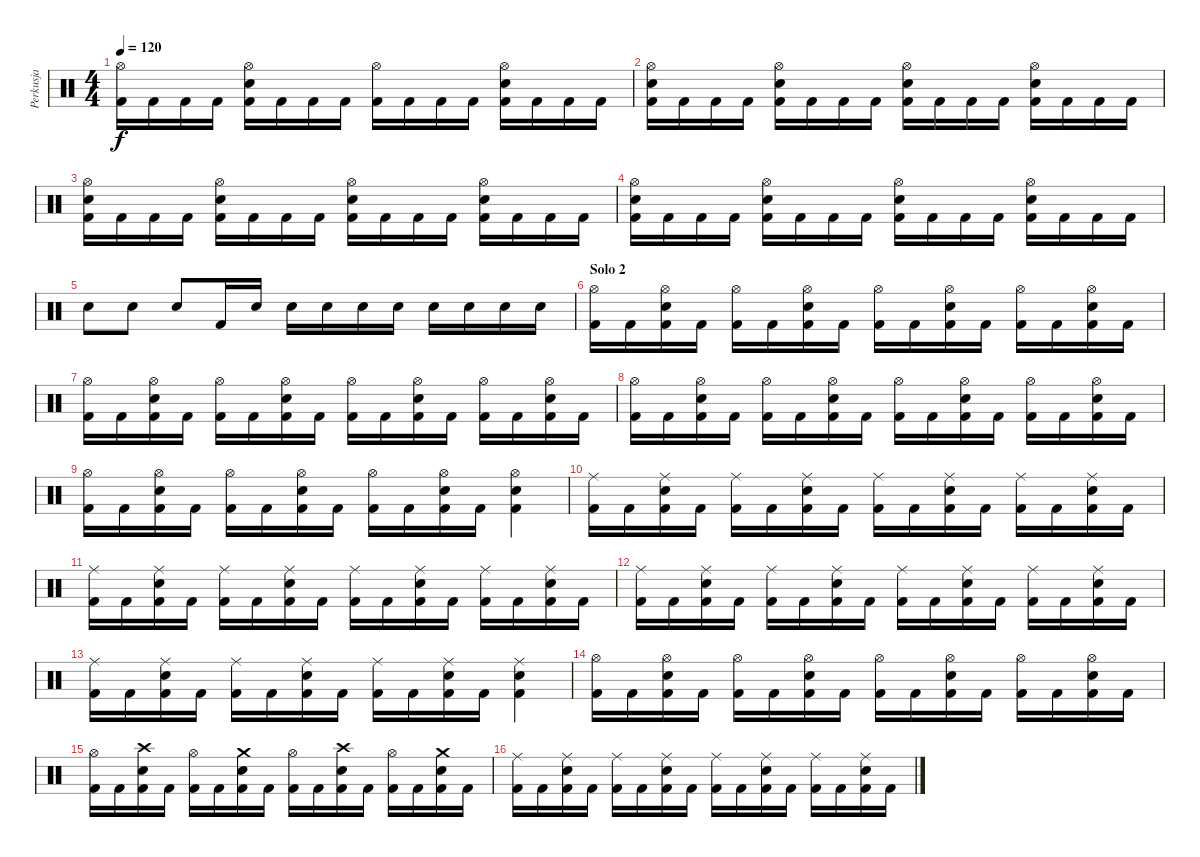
\track ("Perkusja" "Perkusja") {instrument percussion}
\staff {score}
\articulation defaults
\ts (4 4)
\tempo 120
\clef neutral
\ks c
("Hi-Hat (open)" "Kick (hit) 2").16{dy f} "Kick (hit) 2".16 "Kick (hit) 2".16 "Kick (hit) 2".16 ("Hi-Hat (open)" "Snare (hit) 2" "Kick (hit) 2").16 "Kick (hit) 2".16 "Kick (hit) 2".16 "Kick (hit) 2".16 ("Hi-Hat (open)" "Kick (hit) 2").16 "Kick (hit) 2".16 "Kick (hit) 2".16 "Kick (hit) 2".16 ("Hi-Hat (open)" "Snare (hit) 2" "Kick (hit) 2").16 "Kick (hit) 2".16 "Kick (hit) 2".16 "Kick (hit) 2".16 |
("Hi-Hat (open)" "Snare (hit) 2" "Kick (hit) 2").16 "Kick (hit) 2".16 "Kick (hit) 2".16 "Kick (hit) 2".16 ("Hi-Hat (open)" "Snare (hit) 2" "Kick (hit) 2").16 "Kick (hit) 2".16 "Kick (hit) 2".16 "Kick (hit) 2".16 ("Hi-Hat (open)" "Snare (hit) 2" "Kick (hit) 2").16 "Kick (hit) 2".16 "Kick (hit) 2".16 "Kick (hit) 2".16 ("Hi-Hat (open)" "Snare (hit) 2" "Kick (hit) 2").16 "Kick (hit) 2".16 "Kick (hit) 2".16 "Kick (hit) 2".16 |
("Hi-Hat (open)" "Snare (hit) 2" "Kick (hit) 2").16 "Kick (hit) 2".16 "Kick (hit) 2".16 "Kick (hit) 2".16 ("Hi-Hat (open)" "Snare (hit) 2" "Kick (hit) 2").16 "Kick (hit) 2".16 "Kick (hit) 2".16 "Kick (hit) 2".16 ("Hi-Hat (open)" "Snare (hit) 2" "Kick (hit) 2").16 "Kick (hit) 2".16 "Kick (hit) 2".16 "Kick (hit) 2".16 ("Hi-Hat (open)" "Snare (hit) 2" "Kick (hit) 2").16 "Kick (hit) 2".16 "Kick (hit) 2".16 "Kick (hit) 2".16 |
("Hi-Hat (open)" "Snare (hit) 2" "Kick (hit) 2").16 "Kick (hit) 2".16 "Kick (hit) 2".16 "Kick (hit) 2".16 ("Hi-Hat (open)" "Snare (hit) 2" "Kick (hit) 2").16 "Kick (hit) 2".16 "Kick (hit) 2".16 "Kick (hit) 2".16 ("Hi-Hat (open)" "Snare (hit) 2" "Kick (hit) 2").16 "Kick (hit) 2".16 "Kick (hit) 2".16 "Kick (hit) 2".16 ("Hi-Hat (open)" "Snare (hit) 2" "Kick (hit) 2").16 "Kick (hit) 2".16 "Kick (hit) 2".16 "Kick (hit) 2".16 |
"Snare (hit) 2".8 "Snare (hit) 2".8 "Snare (hit) 2".8 "Kick (hit) 2".16 "Snare (hit) 2".16 "Snare (hit) 2".16 "Snare (hit) 2".16 "Snare (hit) 2".16 "Snare (hit) 2".16 "Snare (hit) 2".16 "Snare (hit) 2".16 "Snare (hit) 2".16 "Snare (hit) 2".16 |
\section ("" "Solo 2")
("Hi-Hat (open)" "Kick (hit) 2").16 "Kick (hit) 2".16 ("Hi-Hat (open)" "Snare (hit) 2" "Kick (hit) 2").16 "Kick (hit) 2".16 ("Hi-Hat (open)" "Kick (hit) 2").16 "Kick (hit) 2".16 ("Hi-Hat (open)" "Snare (hit) 2" "Kick (hit) 2").16 "Kick (hit) 2".16 ("Hi-Hat (open)" "Kick (hit) 2").16 "Kick (hit) 2".16 ("Hi-Hat (open)" "Snare (hit) 2" "Kick (hit) 2").16 "Kick (hit) 2".16 ("Hi-Hat (open)" "Kick (hit) 2").16 "Kick (hit) 2".16 ("Hi-Hat (open)" "Snare (hit) 2" "Kick (hit) 2").16 "Kick (hit) 2".16 |
("Hi-Hat (open)" "Kick (hit) 2").16 "Kick (hit) 2".16 ("Hi-Hat (open)" "Snare (hit) 2" "Kick (hit) 2").16 "Kick (hit) 2".16 ("Hi-Hat (open)" "Kick (hit) 2").16 "Kick (hit) 2".16 ("Hi-Hat (open)" "Snare (hit) 2" "Kick (hit) 2").16 "Kick (hit) 2".16 ("Hi-Hat (open)" "Kick (hit) 2").16 "Kick (hit) 2".16 ("Hi-Hat (open)" "Snare (hit) 2" "Kick (hit) 2").16 "Kick (hit) 2".16 ("Hi-Hat (open)" "Kick (hit) 2").16 "Kick (hit) 2".16 ("Hi-Hat (open)" "Snare (hit) 2" "Kick (hit) 2").16 "Kick (hit) 2".16 |
("Hi-Hat (open)" "Kick (hit) 2").16 "Kick (hit) 2".16 ("Hi-Hat (open)" "Snare (hit) 2" "Kick (hit) 2").16 "Kick (hit) 2".16 ("Hi-Hat (open)" "Kick (hit) 2").16 "Kick (hit) 2".16 ("Hi-Hat (open)" "Snare (hit) 2" "Kick (hit) 2").16 "Kick (hit) 2".16 ("Hi-Hat (open)" "Kick (hit) 2").16 "Kick (hit) 2".16 ("Hi-Hat (open)" "Snare (hit) 2" "Kick (hit) 2").16 "Kick (hit) 2".16 ("Hi-Hat (open)" "Kick (hit) 2").16 "Kick (hit) 2".16 ("Hi-Hat (open)" "Snare (hit) 2" "Kick (hit) 2").16 "Kick (hit) 2".16 |
("Hi-Hat (open)" "Kick (hit) 2").16 "Kick (hit) 2".16 ("Hi-Hat (open)" "Snare (hit) 2" "Kick (hit) 2").16 "Kick (hit) 2".16 ("Hi-Hat (open)" "Kick (hit) 2").16 "Kick (hit) 2".16 ("Hi-Hat (open)" "Snare (hit) 2" "Kick (hit) 2").16 "Kick (hit) 2".16 ("Hi-Hat (open)" "Kick (hit) 2").16 "Kick (hit) 2".16 ("Hi-Hat (open)" "Snare (hit) 2" "Kick (hit) 2").16 "Kick (hit) 2".16 ("Hi-Hat (open)" "Snare (hit) 2" "Kick (hit) 2").4 |
("Ride (middle)" "Kick (hit) 2").16 "Kick (hit) 2".16 ("Ride (middle)" "Snare (hit) 2" "Kick (hit) 2").16 "Kick (hit) 2".16 ("Ride (middle)" "Kick (hit) 2").16 "Kick (hit) 2".16 ("Ride (middle)" "Snare (hit) 2" "Kick (hit) 2").16 "Kick (hit) 2".16 ("Ride (middle)" "Kick (hit) 2").16 "Kick (hit) 2".16 ("Ride (middle)" "Snare (hit) 2" "Kick (hit) 2").16 "Kick (hit) 2".16 ("Ride (middle)" "Kick (hit) 2").16 "Kick (hit) 2".16 ("Ride (middle)" "Snare (hit) 2" "Kick (hit) 2").16 "Kick (hit) 2".16 |
("Ride (middle)" "Kick (hit) 2").16 "Kick (hit) 2".16 ("Ride (middle)" "Snare (hit) 2" "Kick (hit) 2").16 "Kick (hit) 2".16 ("Ride (middle)" "Kick (hit) 2").16 "Kick (hit) 2".16 ("Ride (middle)" "Snare (hit) 2" "Kick (hit) 2").16 "Kick (hit) 2".16 ("Ride (middle)" "Kick (hit) 2").16 "Kick (hit) 2".16 ("Ride (middle)" "Snare (hit) 2" "Kick (hit) 2").16 "Kick (hit) 2".16 ("Ride (middle)" "Kick (hit) 2").16 "Kick (hit) 2".16 ("Ride (middle)" "Snare (hit) 2" "Kick (hit) 2").16 "Kick (hit) 2".16 |
("Ride (middle)" "Kick (hit) 2").16 "Kick (hit) 2".16 ("Ride (middle)" "Snare (hit) 2" "Kick (hit) 2").16 "Kick (hit) 2".16 ("Ride (middle)" "Kick (hit) 2").16 "Kick (hit) 2".16 ("Ride (middle)" "Snare (hit) 2" "Kick (hit) 2").16 "Kick (hit) 2".16 ("Ride (middle)" "Kick (hit) 2").16 "Kick (hit) 2".16 ("Ride (middle)" "Snare (hit) 2" "Kick (hit) 2").16 "Kick (hit) 2".16 ("Ride (middle)" "Kick (hit) 2").16 "Kick (hit) 2".16 ("Ride (middle)" "Snare (hit) 2" "Kick (hit) 2").16 "Kick (hit) 2".16 |
("Ride (middle)" "Kick (hit) 2").16 "Kick (hit) 2".16 ("Ride (middle)" "Snare (hit) 2" "Kick (hit) 2").16 "Kick (hit) 2".16 ("Ride (middle)" "Kick (hit) 2").16 "Kick (hit) 2".16 ("Ride (middle)" "Snare (hit) 2" "Kick (hit) 2").16 "Kick (hit) 2".16 ("Ride (middle)" "Kick (hit) 2").16 "Kick (hit) 2".16 ("Ride (middle)" "Snare (hit) 2" "Kick (hit) 2").16 "Kick (hit) 2".16 ("Ride (middle)" "Snare (hit) 2" "Kick (hit) 2").4 |
("Hi-Hat (open)" "Kick (hit) 2").16 "Kick (hit) 2".16 ("Hi-Hat (open)" "Snare (hit) 2" "Kick (hit) 2").16 "Kick (hit) 2".16 ("Hi-Hat (open)" "Kick (hit) 2").16 "Kick (hit) 2".16 ("Hi-Hat (open)" "Snare (hit) 2" "Kick (hit) 2").16 "Kick (hit) 2".16 ("Hi-Hat (open)" "Kick (hit) 2").16 "Kick (hit) 2".16 ("Hi-Hat (open)" "Snare (hit) 2" "Kick (hit) 2").16 "Kick (hit) 2".16 ("Hi-Hat (open)" "Kick (hit) 2").16 "Kick (hit) 2".16 ("Hi-Hat (open)" "Snare (hit) 2" "Kick (hit) 2").16 "Kick (hit) 2".16 |
("Hi-Hat (open)" "Kick (hit) 2").16 "Kick (hit) 2".16 ("Crash high (hit)" "Snare (hit) 2" "Kick (hit) 2").16 "Kick (hit) 2".16 ("Hi-Hat (open)" "Kick (hit) 2").16 "Kick (hit) 2".16 ("Crash medium (hit)" "Snare (hit) 2" "Kick (hit) 2").16 "Kick (hit) 2".16 ("Hi-Hat (open)" "Kick (hit) 2").16 "Kick (hit) 2".16 ("Crash high (hit)" "Snare (hit) 2" "Kick (hit) 2").16 "Kick (hit) 2".16 ("Hi-Hat (open)" "Kick (hit) 2").16 "Kick (hit) 2".16 ("Crash medium (hit)" "Snare (hit) 2" "Kick (hit) 2").16 "Kick (hit) 2".16 |
("Ride (middle)" "Kick (hit) 2").16 "Kick (hit) 2".16 ("Ride (middle)" "Snare (hit) 2" "Kick (hit) 2").16 "Kick (hit) 2".16 ("Ride (middle)" "Kick (hit) 2").16 "Kick (hit) 2".16 ("Ride (middle)" "Snare (hit) 2" "Kick (hit) 2").16 "Kick (hit) 2".16 ("Ride (middle)" "Kick (hit) 2").16 "Kick (hit) 2".16 ("Ride (middle)" "Snare (hit) 2" "Kick (hit) 2").16 "Kick (hit) 2".16 ("Ride (middle)" "Kick (hit) 2").16 "Kick (hit) 2".16 ("Ride (middle)" "Snare (hit) 2" "Kick (hit) 2").16 "Kick (hit) 2".16
